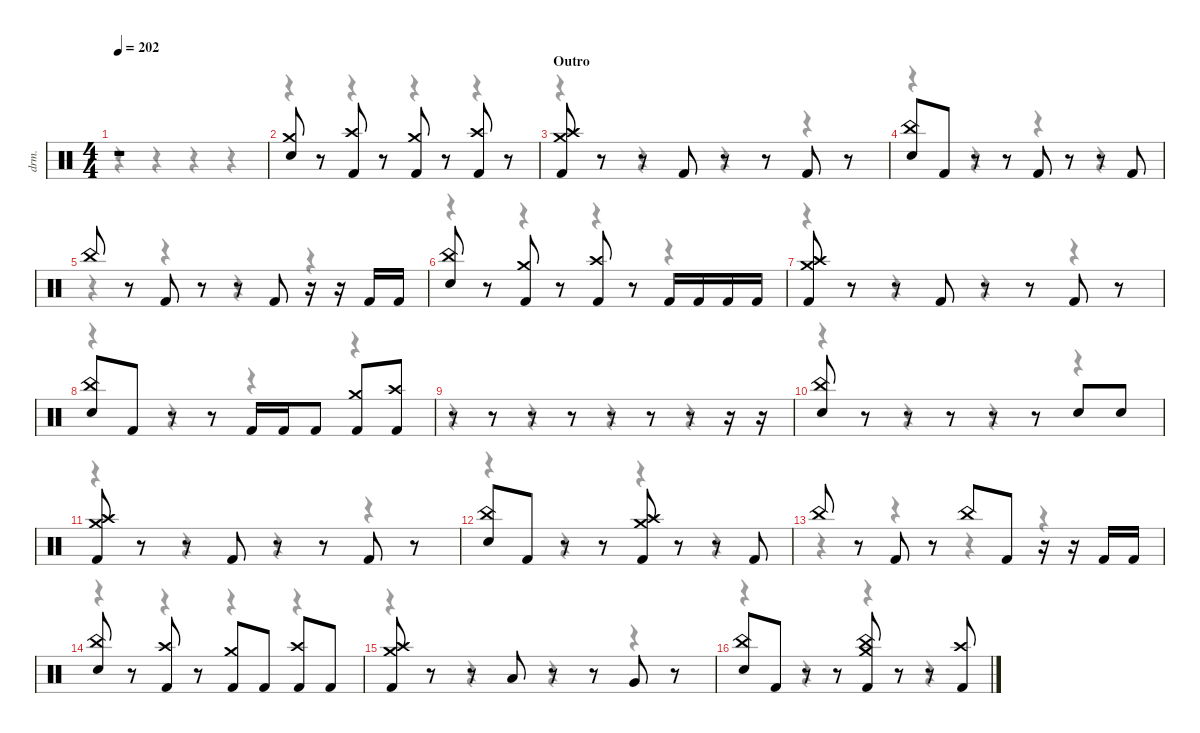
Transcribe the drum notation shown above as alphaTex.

\defaultSystemsLayout 4
\hideDynamics
\bracketExtendMode nobrackets
\track ("Alex Ballew" "drm.") {instrument percussion}
\staff {score}
\articulation defaults
\voice
\ts (4 4)
\tempo 202
\clef neutral
\ks c
r.1{dy f beam Up} |
("Crash medium (hit)" "Snare (hit) 2").8{beam Up} r.8{beam Up} ("Crash high (hit)" "Kick (hit) 2").8{beam Up} r.8{beam Up} ("Crash medium (hit)" "Kick (hit) 2").8{beam Up} r.8{beam Up} ("Crash high (hit)" "Kick (hit) 2").8{beam Up} r.8{beam Up} |
\section ("" "Outro")
("Crash medium (hit)" "Crash high (hit)" "Kick (hit) 2").8{beam Up} r.8{beam Up} r.8{beam Up} "Kick (hit) 2".8{beam Up} r.8{beam Up} r.8{beam Up} "Kick (hit) 2".8{beam Up} r.8{beam Up} |
("China (hit)" "Snare (hit) 2").8{beam Up} "Kick (hit) 2".8{beam Up} r.8{beam Up} r.8{beam Up} "Kick (hit) 2".8{beam Up} r.8{beam Up} r.8{beam Up} "Kick (hit) 2".8{beam Up} |
"China (hit)".8{beam Up} r.8{beam Up} "Kick (hit) 2".8{beam Up} r.8{beam Up} r.8{beam Up} "Kick (hit) 2".8{beam Up} r.16{beam Up} r.16{beam Up} "Kick (hit) 2".16{beam Up} "Kick (hit) 2".16{beam Up} |
("China (hit)" "Snare (hit) 2").8{beam Up} r.8{beam Up} ("Crash medium (hit)" "Kick (hit) 2").8{beam Up} r.8{beam Up} ("Crash high (hit)" "Kick (hit) 2").8{beam Up} r.8{beam Up} "Kick (hit) 2".16{beam Up} "Kick (hit) 2".16{beam Up} "Kick (hit) 2".16{beam Up} "Kick (hit) 2".16{beam Up} |
("Crash medium (hit)" "Crash high (hit)" "Kick (hit) 2").8{beam Up} r.8{beam Up} r.8{beam Up} "Kick (hit) 2".8{beam Up} r.8{beam Up} r.8{beam Up} "Kick (hit) 2".8{beam Up} r.8{beam Up} |
("China (hit)" "Snare (hit) 2").8{beam Up} "Kick (hit) 2".8{beam Up} r.8{beam Up} r.8{beam Up} "Kick (hit) 2".16{beam Up} "Kick (hit) 2".16{beam Up} "Kick (hit) 2".8{beam Up} ("Crash medium (hit)" "Kick (hit) 2").8{beam Up} ("Crash high (hit)" "Kick (hit) 2").8{beam Up} |
r.8{beam Up} r.8{beam Up} r.8{beam Up} r.8{beam Up} r.8{beam Up} r.8{beam Up} r.8{beam Up} r.16{beam Up} r.16{beam Up} |
("China (hit)" "Snare (hit) 2").8{beam Up} r.8{beam Up} r.8{beam Up} r.8{beam Up} r.8{beam Up} r.8{beam Up} "Snare (hit) 2".8{beam Up} "Snare (hit) 2".8{beam Up} |
("Crash medium (hit)" "Crash high (hit)" "Kick (hit) 2").8{beam Up} r.8{beam Up} r.8{beam Up} "Kick (hit) 2".8{beam Up} r.8{beam Up} r.8{beam Up} "Kick (hit) 2".8{beam Up} r.8{beam Up} |
("China (hit)" "Snare (hit) 2").8{beam Up} "Kick (hit) 2".8{beam Up} r.8{beam Up} r.8{beam Up} ("Crash medium (hit)" "Crash high (hit)" "Kick (hit) 2").8{beam Up} r.8{beam Up} r.8{beam Up} "Kick (hit) 2".8{beam Up} |
"China (hit)".8{beam Up} r.8{beam Up} "Kick (hit) 2".8{beam Up} r.8{beam Up} "China (hit)".8{beam Up} "Kick (hit) 2".8{beam Up} r.16{beam Up} r.16{beam Up} "Kick (hit) 2".16{beam Up} "Kick (hit) 2".16{beam Up} |
("China (hit)" "Snare (hit) 2").8{beam Up} r.8{beam Up} ("Crash high (hit)" "Kick (hit) 2").8{beam Up} r.8{beam Up} ("Crash medium (hit)" "Kick (hit) 2").8{beam Up} "Kick (hit) 2".8{beam Up} ("Crash high (hit)" "Kick (hit) 2").8{beam Up} "Kick (hit) 2".8{beam Up} |
("Crash medium (hit)" "Crash high (hit)" "Kick (hit) 2").8{beam Up} r.8{beam Up} r.8{beam Up} "Low Tom (hit)".8{beam Up} r.8{beam Up} r.8{beam Up} "Very Low Tom (hit)".8{beam Up} r.8{beam Up} |
("China (hit)" "Snare (hit) 2").8{beam Up} "Kick (hit) 2".8{beam Up} r.8{beam Up} r.8{beam Up} ("China (hit)" "Crash medium (hit)" "Kick (hit) 2").8{beam Up} r.8{beam Up} r.8{beam Up} ("Crash high (hit)" "Kick (hit) 2").8{beam Up}
\voice
\clef neutral
\ottava regular
\simile none
\ks c
r.4{dy mf beam Down} r.4{beam Down} r.4{beam Down} r.4{beam Down} |
r.4{beam Down} r.4{beam Down} r.4{beam Down} r.4{beam Down} |
r.4{beam Down} r.4{beam Down} r.4{beam Down} r.4{beam Down} |
r.4{beam Down} r.4{beam Down} r.4{beam Down} r.4{beam Down} |
r.4{beam Down} r.4{beam Down} r.4{beam Down} r.4{beam Down} |
r.4{beam Down} r.4{beam Down} r.4{beam Down} r.4{beam Down} |
r.4{beam Down} r.4{beam Down} r.4{beam Down} r.4{beam Down} |
r.4{beam Down} r.4{beam Down} r.4{beam Down} r.4{beam Down} |
r.4{beam Down} r.4{beam Down} r.4{beam Down} r.4{beam Down} |
r.4{beam Down} r.4{beam Down} r.4{beam Down} r.4{beam Down} |
r.4{beam Down} r.4{beam Down} r.4{beam Down} r.4{beam Down} |
r.4{beam Down} r.4{beam Down} r.4{beam Down} r.4{beam Down} |
r.4{beam Down} r.4{beam Down} r.4{beam Down} r.4{beam Down} |
r.4{beam Down} r.4{beam Down} r.4{beam Down} r.4{beam Down} |
r.4{beam Down} r.4{beam Down} r.4{beam Down} r.4{beam Down} |
r.4{beam Down} r.4{beam Down} r.4{beam Down} r.4{beam Down}
